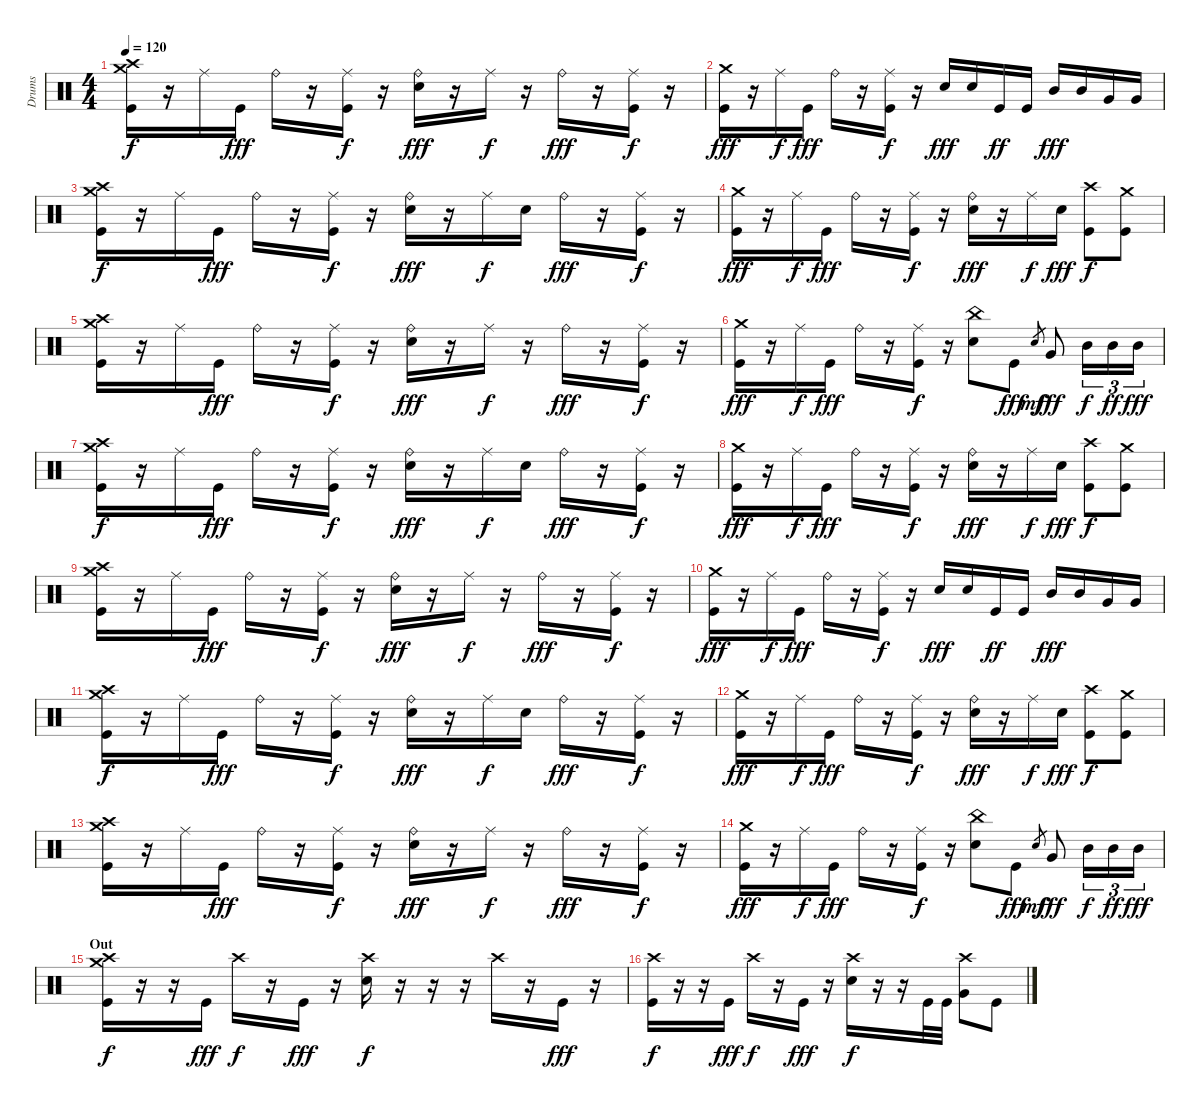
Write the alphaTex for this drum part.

\track ("Drums" "Drums") {instrument percussion}
\staff {score}
\articulation defaults
\ts (4 4)
\tempo 120
\clef neutral
\ks c
("Crash high (hit)" "Crash medium (hit)" "Kick (hit)").16{dy f} r.16 "Ride (middle)".16 "Kick (hit)".16{dy fff} "Ride (bell)".16 r.16 ("Ride (middle)" "Kick (hit)").16{dy f} r.16 ("Ride (bell)" "Snare (hit) 2").16{dy fff} r.16 "Ride (middle)".16{dy f} r.16 "Ride (bell)".16{dy fff} r.16 ("Ride (middle)" "Kick (hit)").16{dy f} r.16 |
("Crash medium (hit)" "Kick (hit)").16{dy fff} r.16 "Ride (middle)".16{dy f} "Kick (hit)".16{dy fff} "Ride (bell)".16 r.16 ("Ride (middle)" "Kick (hit)").16{dy f} r.16 "Snare (hit) 2".16{dy fff} "Snare (hit) 2".16 "Kick (hit)".16{dy ff} "Kick (hit)".16 "Mid Tom (hit)".16{dy fff} "Mid Tom (hit)".16 "Very Low Tom (hit)".16 "Very Low Tom (hit)".16 |
("Crash high (hit)" "Crash medium (hit)" "Kick (hit)").16{dy f} r.16 "Ride (middle)".16 "Kick (hit)".16{dy fff} "Ride (bell)".16 r.16 ("Ride (middle)" "Kick (hit)").16{dy f} r.16 ("Ride (bell)" "Snare (hit) 2").16{dy fff} r.16 "Ride (middle)".16{dy f} "Snare (hit) 2".16 "Ride (bell)".16{dy fff} r.16 ("Ride (middle)" "Kick (hit)").16{dy f} r.16 |
("Crash medium (hit)" "Kick (hit)").16{dy fff} r.16 "Ride (middle)".16{dy f} "Kick (hit)".16{dy fff} "Ride (bell)".16 r.16 ("Ride (middle)" "Kick (hit)").16{dy f} r.16 ("Ride (bell)" "Snare (hit) 2").16{dy fff} r.16 "Ride (middle)".16{dy f} "Snare (hit) 2".16{dy fff} ("Crash high (hit)" "Kick (hit)").8{dy f} ("Crash medium (hit)" "Kick (hit)").8 |
("Crash high (hit)" "Crash medium (hit)" "Kick (hit)").16 r.16 "Ride (middle)".16 "Kick (hit)".16{dy fff} "Ride (bell)".16 r.16 ("Ride (middle)" "Kick (hit)").16{dy f} r.16 ("Ride (bell)" "Snare (hit) 2").16{dy fff} r.16 "Ride (middle)".16{dy f} r.16 "Ride (bell)".16{dy fff} r.16 ("Ride (middle)" "Kick (hit)").16{dy f} r.16 |
("Crash medium (hit)" "Kick (hit)").16{dy fff} r.16 "Ride (middle)".16{dy f} "Kick (hit)".16{dy fff} "Ride (bell)".16 r.16 ("Ride (middle)" "Kick (hit)").16{dy f} r.16 ("China (hit)" "Snare (hit) 2").8 "Kick (hit)".8{dy fff} "Snare (hit)".8{gr dy mf} "Very Low Tom (hit)".8{dy fff} "Mid Tom (hit)".16{tu (3 2) dy f} "Mid Tom (hit)".16{tu (3 2) dy ff} "Mid Tom (hit)".16{tu (3 2) dy fff} |
("Crash high (hit)" "Crash medium (hit)" "Kick (hit)").16{dy f} r.16 "Ride (middle)".16 "Kick (hit)".16{dy fff} "Ride (bell)".16 r.16 ("Ride (middle)" "Kick (hit)").16{dy f} r.16 ("Ride (bell)" "Snare (hit) 2").16{dy fff} r.16 "Ride (middle)".16{dy f} "Snare (hit) 2".16 "Ride (bell)".16{dy fff} r.16 ("Ride (middle)" "Kick (hit)").16{dy f} r.16 |
("Crash medium (hit)" "Kick (hit)").16{dy fff} r.16 "Ride (middle)".16{dy f} "Kick (hit)".16{dy fff} "Ride (bell)".16 r.16 ("Ride (middle)" "Kick (hit)").16{dy f} r.16 ("Ride (bell)" "Snare (hit) 2").16{dy fff} r.16 "Ride (middle)".16{dy f} "Snare (hit) 2".16{dy fff} ("Crash high (hit)" "Kick (hit)").8{dy f} ("Crash medium (hit)" "Kick (hit)").8 |
("Crash high (hit)" "Crash medium (hit)" "Kick (hit)").16 r.16 "Ride (middle)".16 "Kick (hit)".16{dy fff} "Ride (bell)".16 r.16 ("Ride (middle)" "Kick (hit)").16{dy f} r.16 ("Ride (bell)" "Snare (hit) 2").16{dy fff} r.16 "Ride (middle)".16{dy f} r.16 "Ride (bell)".16{dy fff} r.16 ("Ride (middle)" "Kick (hit)").16{dy f} r.16 |
("Crash medium (hit)" "Kick (hit)").16{dy fff} r.16 "Ride (middle)".16{dy f} "Kick (hit)".16{dy fff} "Ride (bell)".16 r.16 ("Ride (middle)" "Kick (hit)").16{dy f} r.16 "Snare (hit) 2".16{dy fff} "Snare (hit) 2".16 "Kick (hit)".16{dy ff} "Kick (hit)".16 "Mid Tom (hit)".16{dy fff} "Mid Tom (hit)".16 "Very Low Tom (hit)".16 "Very Low Tom (hit)".16 |
("Crash high (hit)" "Crash medium (hit)" "Kick (hit)").16{dy f} r.16 "Ride (middle)".16 "Kick (hit)".16{dy fff} "Ride (bell)".16 r.16 ("Ride (middle)" "Kick (hit)").16{dy f} r.16 ("Ride (bell)" "Snare (hit) 2").16{dy fff} r.16 "Ride (middle)".16{dy f} "Snare (hit) 2".16 "Ride (bell)".16{dy fff} r.16 ("Ride (middle)" "Kick (hit)").16{dy f} r.16 |
("Crash medium (hit)" "Kick (hit)").16{dy fff} r.16 "Ride (middle)".16{dy f} "Kick (hit)".16{dy fff} "Ride (bell)".16 r.16 ("Ride (middle)" "Kick (hit)").16{dy f} r.16 ("Ride (bell)" "Snare (hit) 2").16{dy fff} r.16 "Ride (middle)".16{dy f} "Snare (hit) 2".16{dy fff} ("Crash high (hit)" "Kick (hit)").8{dy f} ("Crash medium (hit)" "Kick (hit)").8 |
("Crash high (hit)" "Crash medium (hit)" "Kick (hit)").16 r.16 "Ride (middle)".16 "Kick (hit)".16{dy fff} "Ride (bell)".16 r.16 ("Ride (middle)" "Kick (hit)").16{dy f} r.16 ("Ride (bell)" "Snare (hit) 2").16{dy fff} r.16 "Ride (middle)".16{dy f} r.16 "Ride (bell)".16{dy fff} r.16 ("Ride (middle)" "Kick (hit)").16{dy f} r.16 |
("Crash medium (hit)" "Kick (hit)").16{dy fff} r.16 "Ride (middle)".16{dy f} "Kick (hit)".16{dy fff} "Ride (bell)".16 r.16 ("Ride (middle)" "Kick (hit)").16{dy f} r.16 ("China (hit)" "Snare (hit) 2").8 "Kick (hit)".8{dy fff} "Snare (hit)".8{gr dy mf} "Very Low Tom (hit)".8{dy fff} "Mid Tom (hit)".16{tu (3 2) dy f} "Mid Tom (hit)".16{tu (3 2) dy ff} "Mid Tom (hit)".16{tu (3 2) dy fff} |
\section ("" "Out")
("Crash high (hit)" "Crash medium (hit)" "Kick (hit)").16{dy f} r.16 r.16 "Kick (hit)".16{dy fff} "Crash high (hit)".16{dy f} r.16 "Kick (hit)".16{dy fff} r.16 ("Crash high (hit)" "Snare (hit) 2").16{dy f} r.16 r.16 r.16 "Crash high (hit)".16 r.16 "Kick (hit)".16{dy fff} r.16 |
("Crash high (hit)" "Kick (hit)").16{dy f} r.16 r.16 "Kick (hit)".16{dy fff} "Crash high (hit)".16{dy f} r.16 "Kick (hit)".16{dy fff} r.16 ("Crash high (hit)" "Snare (hit) 2").16{dy f} r.16 r.16 "Kick (hit)".32 "Kick (hit)".32 ("Crash high (hit)" "Very Low Tom (hit)").8 "Kick (hit)".8
